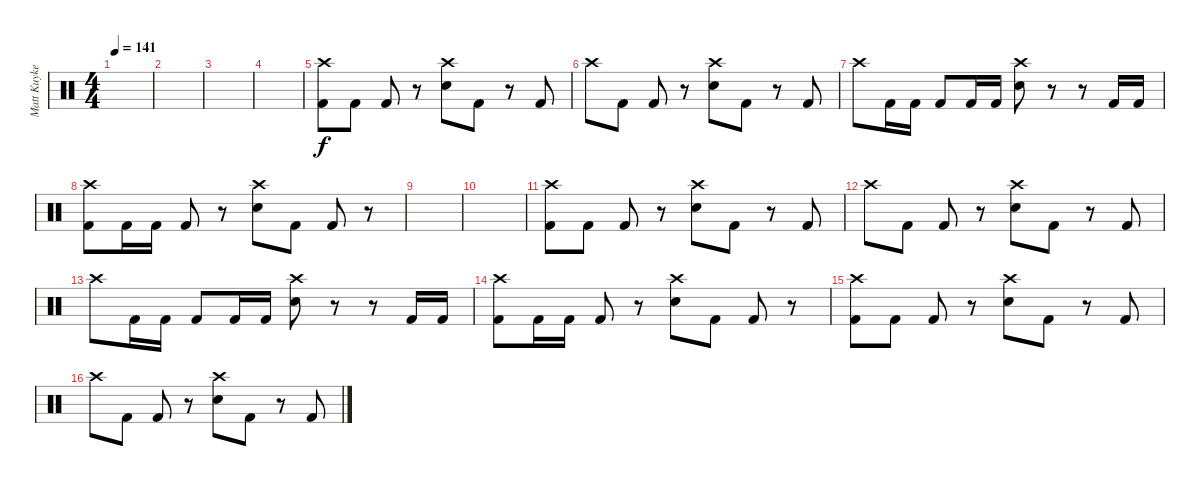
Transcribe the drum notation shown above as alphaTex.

\track ("Matt Kuykendall" "Matt Kuyke") {instrument percussion}
\staff {score}
\articulation defaults
\ts (4 4)
\tempo 141
\clef neutral
\ks c
|
|
|
|
("Crash high (hit)" "Kick (hit) 2").8 "Kick (hit) 2".8 "Kick (hit) 2".8 r.8 ("Crash high (hit)" "Electric Snare (hit)").8 "Kick (hit) 2".8 r.8 "Kick (hit) 2".8 |
"Crash high (hit)".8 "Kick (hit) 2".8 "Kick (hit) 2".8 r.8 ("Crash high (hit)" "Electric Snare (hit)").8 "Kick (hit) 2".8 r.8 "Kick (hit) 2".8 |
"Crash high (hit)".8 "Kick (hit) 2".16 "Kick (hit) 2".16 "Kick (hit) 2".8 "Kick (hit) 2".16 "Kick (hit) 2".16 ("Crash high (hit)" "Electric Snare (hit)").8 r.8 r.8 "Kick (hit) 2".16 "Kick (hit) 2".16 |
("Crash high (hit)" "Kick (hit) 2").8 "Kick (hit) 2".16 "Kick (hit) 2".16 "Kick (hit) 2".8 r.8 ("Crash high (hit)" "Electric Snare (hit)").8 "Kick (hit) 2".8 "Kick (hit) 2".8 r.8 |
|
|
("Crash high (hit)" "Kick (hit) 2").8 "Kick (hit) 2".8 "Kick (hit) 2".8 r.8 ("Crash high (hit)" "Electric Snare (hit)").8 "Kick (hit) 2".8 r.8 "Kick (hit) 2".8 |
"Crash high (hit)".8 "Kick (hit) 2".8 "Kick (hit) 2".8 r.8 ("Crash high (hit)" "Electric Snare (hit)").8 "Kick (hit) 2".8 r.8 "Kick (hit) 2".8 |
"Crash high (hit)".8 "Kick (hit) 2".16 "Kick (hit) 2".16 "Kick (hit) 2".8 "Kick (hit) 2".16 "Kick (hit) 2".16 ("Crash high (hit)" "Electric Snare (hit)").8 r.8 r.8 "Kick (hit) 2".16 "Kick (hit) 2".16 |
("Crash high (hit)" "Kick (hit) 2").8 "Kick (hit) 2".16 "Kick (hit) 2".16 "Kick (hit) 2".8 r.8 ("Crash high (hit)" "Electric Snare (hit)").8 "Kick (hit) 2".8 "Kick (hit) 2".8 r.8 |
("Crash high (hit)" "Kick (hit) 2").8 "Kick (hit) 2".8 "Kick (hit) 2".8 r.8 ("Crash high (hit)" "Electric Snare (hit)").8 "Kick (hit) 2".8 r.8 "Kick (hit) 2".8 |
"Crash high (hit)".8 "Kick (hit) 2".8 "Kick (hit) 2".8 r.8 ("Crash high (hit)" "Electric Snare (hit)").8 "Kick (hit) 2".8 r.8 "Kick (hit) 2".8
